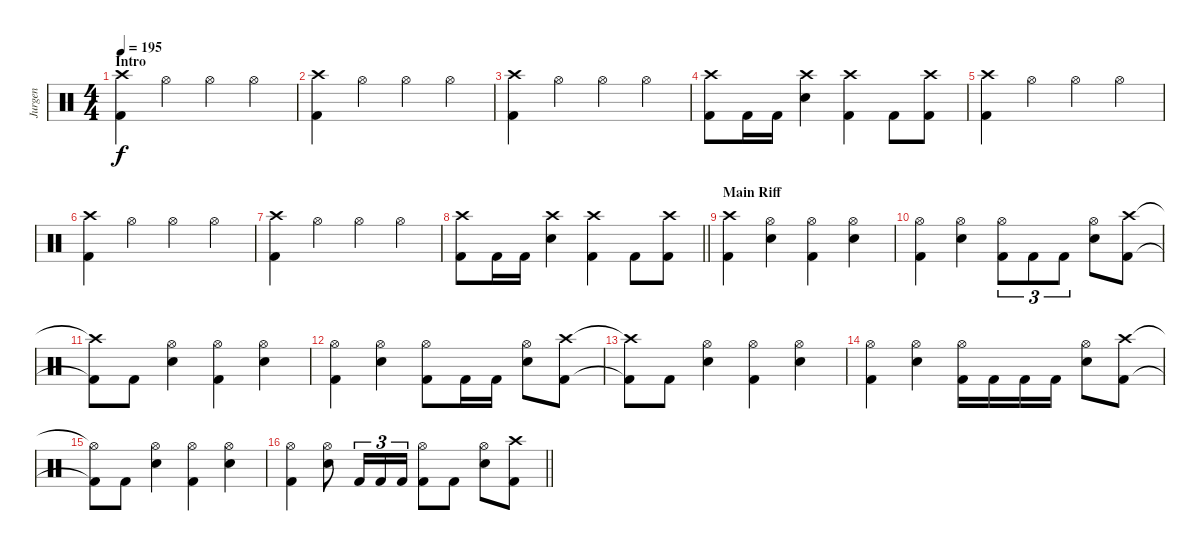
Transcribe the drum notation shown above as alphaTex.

\track ("Jurgen" "Jurgen") {instrument percussion}
\staff {score}
\articulation defaults
\ts (4 4)
\section ("" "Intro")
\tempo 195
\clef neutral
\ks c
("Crash high (hit)" "Kick (hit) 2").4{dy f} "Hi-Hat (open)".4 "Hi-Hat (open)".4 "Hi-Hat (open)".4 |
("Crash high (hit)" "Kick (hit) 2").4 "Hi-Hat (open)".4 "Hi-Hat (open)".4 "Hi-Hat (open)".4 |
("Crash high (hit)" "Kick (hit) 2").4 "Hi-Hat (open)".4 "Hi-Hat (open)".4 "Hi-Hat (open)".4 |
("Crash high (hit)" "Kick (hit) 2").8 "Kick (hit) 2".16 "Kick (hit) 2".16 ("Crash high (hit)" "Snare (hit) 2").4 ("Crash high (hit)" "Kick (hit) 2").4 "Kick (hit) 2".8 ("Crash high (hit)" "Kick (hit) 2").8 |
("Crash high (hit)" "Kick (hit) 2").4 "Hi-Hat (open)".4 "Hi-Hat (open)".4 "Hi-Hat (open)".4 |
("Crash high (hit)" "Kick (hit) 2").4 "Hi-Hat (open)".4 "Hi-Hat (open)".4 "Hi-Hat (open)".4 |
("Crash high (hit)" "Kick (hit) 2").4 "Hi-Hat (open)".4 "Hi-Hat (open)".4 "Hi-Hat (open)".4 |
\barLineRight lightlight
("Crash high (hit)" "Kick (hit) 2").8 "Kick (hit) 2".16 "Kick (hit) 2".16 ("Crash high (hit)" "Snare (hit) 2").4 ("Crash high (hit)" "Kick (hit) 2").4 "Kick (hit) 2".8 ("Crash high (hit)" "Kick (hit) 2").8 |
\section ("" "Main Riff")
("Crash high (hit)" "Kick (hit) 2").4 ("Hi-Hat (open)" "Snare (hit) 2").4 ("Hi-Hat (open)" "Kick (hit) 2").4 ("Hi-Hat (open)" "Snare (hit) 2").4 |
("Hi-Hat (open)" "Kick (hit) 2").4 ("Hi-Hat (open)" "Snare (hit) 2").4 ("Hi-Hat (open)" "Kick (hit) 2").8{tu (3 2)} "Kick (hit) 2".8{tu (3 2)} "Kick (hit) 2".8{tu (3 2)} ("Hi-Hat (open)" "Snare (hit) 2").8 ("Crash high (hit)" "Kick (hit) 2").8 |
("Crash high (hit)"{t} "Kick (hit) 2"{t}).8 "Kick (hit) 2".8 ("Hi-Hat (open)" "Snare (hit) 2").4 ("Hi-Hat (open)" "Kick (hit) 2").4 ("Hi-Hat (open)" "Snare (hit) 2").4 |
("Hi-Hat (open)" "Kick (hit) 2").4 ("Hi-Hat (open)" "Snare (hit) 2").4 ("Hi-Hat (open)" "Kick (hit) 2").8 "Kick (hit) 2".16 "Kick (hit) 2".16 ("Hi-Hat (open)" "Snare (hit) 2").8 ("Crash high (hit)" "Kick (hit) 2").8 |
("Crash high (hit)"{t} "Kick (hit) 2"{t}).8 "Kick (hit) 2".8 ("Hi-Hat (open)" "Snare (hit) 2").4 ("Hi-Hat (open)" "Kick (hit) 2").4 ("Hi-Hat (open)" "Snare (hit) 2").4 |
("Hi-Hat (open)" "Kick (hit) 2").4 ("Hi-Hat (open)" "Snare (hit) 2").4 ("Hi-Hat (open)" "Kick (hit) 2").16 "Kick (hit) 2".16 "Kick (hit) 2".16 "Kick (hit) 2".16 ("Hi-Hat (open)" "Snare (hit) 2").8 ("Crash high (hit)" "Kick (hit) 2").8 |
("Hi-Hat (open)"{t} "Kick (hit) 2"{t}).8 "Kick (hit) 2".8 ("Hi-Hat (open)" "Snare (hit) 2").4 ("Hi-Hat (open)" "Kick (hit) 2").4 ("Hi-Hat (open)" "Snare (hit) 2").4 |
\barLineRight lightlight
("Hi-Hat (open)" "Kick (hit) 2").4 ("Hi-Hat (open)" "Snare (hit) 2").8 "Kick (hit) 2".16{tu (3 2)} "Kick (hit) 2".16{tu (3 2)} "Kick (hit) 2".16{tu (3 2)} ("Hi-Hat (open)" "Kick (hit) 2").8 "Kick (hit) 2".8 ("Hi-Hat (open)" "Snare (hit) 2").8 ("Crash high (hit)" "Kick (hit) 2").8
